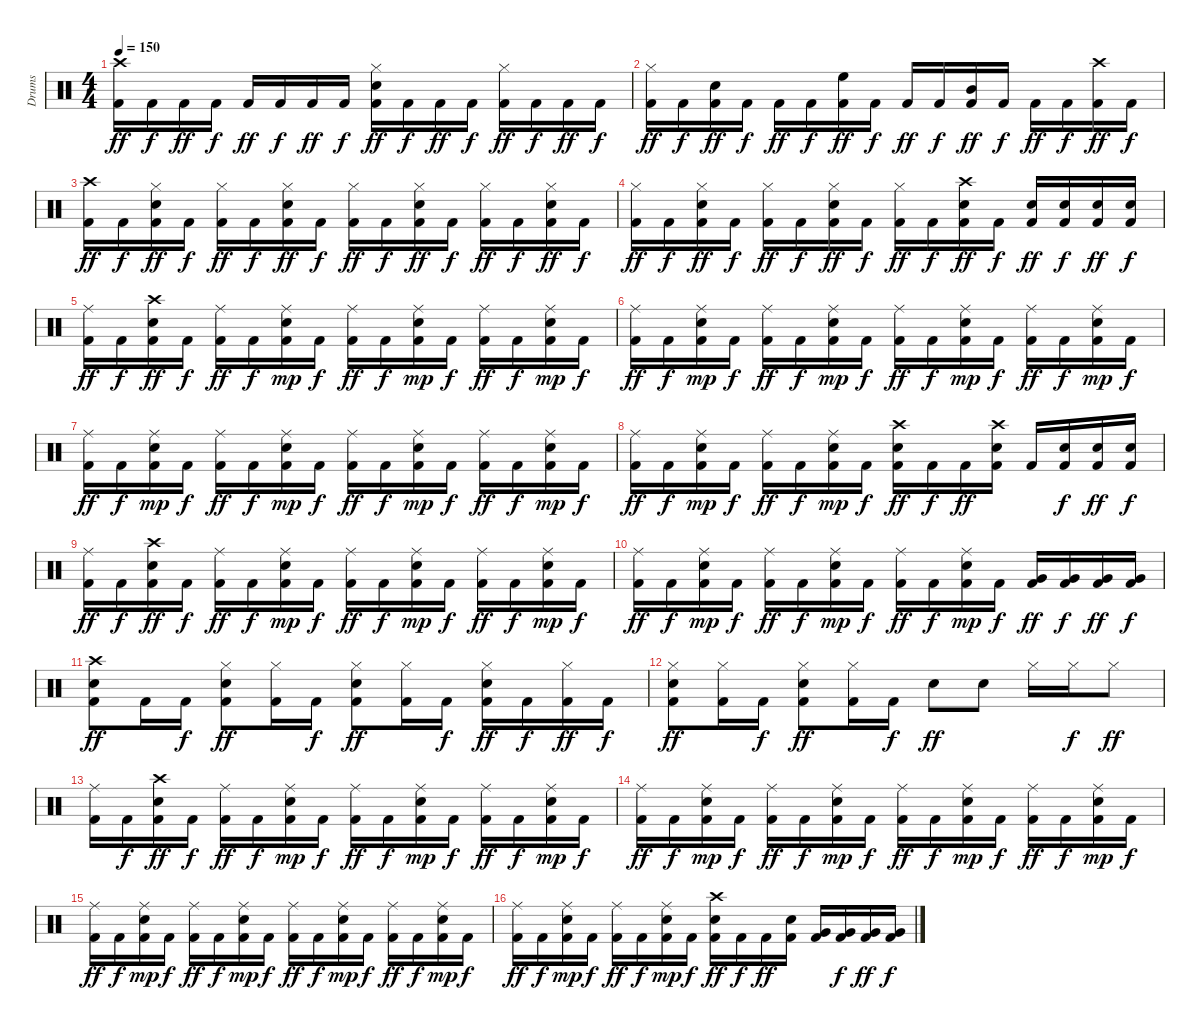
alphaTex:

\track ("Drums" "Drums") {instrument percussion}
\staff {score}
\articulation defaults
\ts (4 4)
\tempo 150
\clef neutral
\ks c
("Crash high (hit)" "Kick (hit) 2").16{dy ff} "Kick (hit) 2".16{dy f} "Kick (hit) 2".16{dy ff} "Kick (hit) 2".16{dy f} "Kick (hit) 2".16{dy ff} "Kick (hit) 2".16{dy f} "Kick (hit) 2".16{dy ff} "Kick (hit) 2".16{dy f} ("Snare (hit) 2" "Hi-Hat (closed)" "Kick (hit) 2").16{dy ff} "Kick (hit) 2".16{dy f} "Kick (hit) 2".16{dy ff} "Kick (hit) 2".16{dy f} ("Hi-Hat (closed)" "Kick (hit) 2").16{dy ff} "Kick (hit) 2".16{dy f} "Kick (hit) 2".16{dy ff} "Kick (hit) 2".16{dy f} |
("Hi-Hat (closed)" "Kick (hit) 2").16{dy ff} "Kick (hit) 2".16{dy f} ("Snare (hit) 2" "Kick (hit) 2").16{dy ff} "Kick (hit) 2".16{dy f} "Kick (hit) 2".16{dy ff} "Kick (hit) 2".16{dy f} ("High Floor Tom (hit)" "Kick (hit) 2").16{dy ff} "Kick (hit) 2".16{dy f} "Kick (hit) 2".16{dy ff} "Kick (hit) 2".16{dy f} ("Mid Tom (hit)" "Kick (hit) 2").16{dy ff} "Kick (hit) 2".16{dy f} "Kick (hit) 2".16{dy ff} "Kick (hit) 2".16{dy f} ("Crash high (hit)" "Kick (hit) 2").16{dy ff} "Kick (hit) 2".16{dy f} |
("Crash high (hit)" "Kick (hit) 2").16{dy ff} "Kick (hit) 2".16{dy f} ("Kick (hit) 2" "Hi-Hat (closed)" "Snare (hit) 2").16{dy ff} "Kick (hit) 2".16{dy f} ("Hi-Hat (closed)" "Kick (hit) 2").16{dy ff} "Kick (hit) 2".16{dy f} ("Kick (hit) 2" "Hi-Hat (closed)" "Snare (hit) 2").16{dy ff} "Kick (hit) 2".16{dy f} ("Hi-Hat (closed)" "Kick (hit) 2").16{dy ff} "Kick (hit) 2".16{dy f} ("Kick (hit) 2" "Hi-Hat (closed)" "Snare (hit) 2").16{dy ff} "Kick (hit) 2".16{dy f} ("Hi-Hat (closed)" "Kick (hit) 2").16{dy ff} "Kick (hit) 2".16{dy f} ("Kick (hit) 2" "Hi-Hat (closed)" "Snare (hit) 2").16{dy ff} "Kick (hit) 2".16{dy f} |
("Hi-Hat (closed)" "Kick (hit) 2").16{dy ff} "Kick (hit) 2".16{dy f} ("Kick (hit) 2" "Hi-Hat (closed)" "Snare (hit) 2").16{dy ff} "Kick (hit) 2".16{dy f} ("Hi-Hat (closed)" "Kick (hit) 2").16{dy ff} "Kick (hit) 2".16{dy f} ("Kick (hit) 2" "Hi-Hat (closed)" "Snare (hit) 2").16{dy ff} "Kick (hit) 2".16{dy f} ("Hi-Hat (closed)" "Kick (hit) 2").16{dy ff} "Kick (hit) 2".16{dy f} ("Kick (hit) 2" "Snare (hit) 2" "Crash high (hit)").16{dy ff} "Kick (hit) 2".16{dy f} ("Snare (hit) 2" "Kick (hit) 2").16{dy ff} ("Snare (hit) 2" "Kick (hit) 2").16{dy f} ("Snare (hit) 2" "Kick (hit) 2").16{dy ff} ("Snare (hit) 2" "Kick (hit) 2").16{dy f} |
("Ride (middle)" "Kick (hit) 2").16{dy ff} "Kick (hit) 2".16{dy f} ("Snare (hit) 2" "Crash high (hit)" "Kick (hit) 2").16{dy ff} "Kick (hit) 2".16{dy f} ("Ride (middle)" "Kick (hit) 2").16{dy ff} "Kick (hit) 2".16{dy f} ("Kick (hit) 2" "Snare (hit) 2" "Ride (middle)").16{dy mp} "Kick (hit) 2".16{dy f} ("Ride (middle)" "Kick (hit) 2").16{dy ff} "Kick (hit) 2".16{dy f} ("Kick (hit) 2" "Snare (hit) 2" "Ride (middle)").16{dy mp} "Kick (hit) 2".16{dy f} ("Ride (middle)" "Kick (hit) 2").16{dy ff} "Kick (hit) 2".16{dy f} ("Kick (hit) 2" "Snare (hit) 2" "Ride (middle)").16{dy mp} "Kick (hit) 2".16{dy f} |
("Ride (middle)" "Kick (hit) 2").16{dy ff} "Kick (hit) 2".16{dy f} ("Kick (hit) 2" "Snare (hit) 2" "Ride (middle)").16{dy mp} "Kick (hit) 2".16{dy f} ("Ride (middle)" "Kick (hit) 2").16{dy ff} "Kick (hit) 2".16{dy f} ("Kick (hit) 2" "Snare (hit) 2" "Ride (middle)").16{dy mp} "Kick (hit) 2".16{dy f} ("Ride (middle)" "Kick (hit) 2").16{dy ff} "Kick (hit) 2".16{dy f} ("Kick (hit) 2" "Snare (hit) 2" "Ride (middle)").16{dy mp} "Kick (hit) 2".16{dy f} ("Ride (middle)" "Kick (hit) 2").16{dy ff} "Kick (hit) 2".16{dy f} ("Kick (hit) 2" "Snare (hit) 2" "Ride (middle)").16{dy mp} "Kick (hit) 2".16{dy f} |
("Ride (middle)" "Kick (hit) 2").16{dy ff} "Kick (hit) 2".16{dy f} ("Kick (hit) 2" "Snare (hit) 2" "Ride (middle)").16{dy mp} "Kick (hit) 2".16{dy f} ("Ride (middle)" "Kick (hit) 2").16{dy ff} "Kick (hit) 2".16{dy f} ("Kick (hit) 2" "Snare (hit) 2" "Ride (middle)").16{dy mp} "Kick (hit) 2".16{dy f} ("Ride (middle)" "Kick (hit) 2").16{dy ff} "Kick (hit) 2".16{dy f} ("Kick (hit) 2" "Snare (hit) 2" "Ride (middle)").16{dy mp} "Kick (hit) 2".16{dy f} ("Ride (middle)" "Kick (hit) 2").16{dy ff} "Kick (hit) 2".16{dy f} ("Kick (hit) 2" "Snare (hit) 2" "Ride (middle)").16{dy mp} "Kick (hit) 2".16{dy f} |
("Ride (middle)" "Kick (hit) 2").16{dy ff} "Kick (hit) 2".16{dy f} ("Kick (hit) 2" "Snare (hit) 2" "Ride (middle)").16{dy mp} "Kick (hit) 2".16{dy f} ("Ride (middle)" "Kick (hit) 2").16{dy ff} "Kick (hit) 2".16{dy f} ("Kick (hit) 2" "Snare (hit) 2" "Ride (middle)").16{dy mp} "Kick (hit) 2".16{dy f} ("Kick (hit) 2" "Crash high (hit)" "Snare (hit) 2").16{dy ff} "Kick (hit) 2".16{dy f} "Kick (hit) 2".16{dy ff} ("Kick (hit) 2" "Crash high (hit)" "Snare (hit) 2").16 "Kick (hit) 2".16 ("Snare (hit) 2" "Kick (hit) 2").16{dy f} ("Snare (hit) 2" "Kick (hit) 2").16{dy ff} ("Snare (hit) 2" "Kick (hit) 2").16{dy f} |
("Ride (middle)" "Kick (hit) 2").16{dy ff} "Kick (hit) 2".16{dy f} ("Snare (hit) 2" "Crash high (hit)" "Kick (hit) 2").16{dy ff} "Kick (hit) 2".16{dy f} ("Ride (middle)" "Kick (hit) 2").16{dy ff} "Kick (hit) 2".16{dy f} ("Kick (hit) 2" "Snare (hit) 2" "Ride (middle)").16{dy mp} "Kick (hit) 2".16{dy f} ("Ride (middle)" "Kick (hit) 2").16{dy ff} "Kick (hit) 2".16{dy f} ("Kick (hit) 2" "Snare (hit) 2" "Ride (middle)").16{dy mp} "Kick (hit) 2".16{dy f} ("Ride (middle)" "Kick (hit) 2").16{dy ff} "Kick (hit) 2".16{dy f} ("Kick (hit) 2" "Snare (hit) 2" "Ride (middle)").16{dy mp} "Kick (hit) 2".16{dy f} |
("Ride (middle)" "Kick (hit) 2").16{dy ff} "Kick (hit) 2".16{dy f} ("Kick (hit) 2" "Snare (hit) 2" "Ride (middle)").16{dy mp} "Kick (hit) 2".16{dy f} ("Ride (middle)" "Kick (hit) 2").16{dy ff} "Kick (hit) 2".16{dy f} ("Kick (hit) 2" "Snare (hit) 2" "Ride (middle)").16{dy mp} "Kick (hit) 2".16{dy f} ("Ride (middle)" "Kick (hit) 2").16{dy ff} "Kick (hit) 2".16{dy f} ("Kick (hit) 2" "Snare (hit) 2" "Ride (middle)").16{dy mp} "Kick (hit) 2".16{dy f} ("Very Low Tom (hit)" "Kick (hit) 2").16{dy ff} ("Very Low Tom (hit)" "Kick (hit) 2").16{dy f} ("Very Low Tom (hit)" "Kick (hit) 2").16{dy ff} ("Very Low Tom (hit)" "Kick (hit) 2").16{dy f} |
("Kick (hit) 2" "Snare (hit) 2" "Crash high (hit)").8{dy ff} "Kick (hit) 2".16 "Kick (hit) 2".16{dy f} ("Kick (hit) 2" "Hi-Hat (closed)" "Snare (hit) 2").8{dy ff} ("Hi-Hat (closed)" "Kick (hit) 2").16 "Kick (hit) 2".16{dy f} ("Kick (hit) 2" "Hi-Hat (closed)" "Snare (hit) 2").8{dy ff} ("Hi-Hat (closed)" "Kick (hit) 2").16 "Kick (hit) 2".16{dy f} ("Kick (hit) 2" "Hi-Hat (closed)" "Snare (hit) 2").16{dy ff} "Kick (hit) 2".16{dy f} ("Hi-Hat (closed)" "Kick (hit) 2").16{dy ff} "Kick (hit) 2".16{dy f} |
("Kick (hit) 2" "Hi-Hat (closed)" "Snare (hit) 2").8{dy ff} ("Hi-Hat (closed)" "Kick (hit) 2").16 "Kick (hit) 2".16{dy f} ("Kick (hit) 2" "Hi-Hat (closed)" "Snare (hit) 2").8{dy ff} ("Hi-Hat (closed)" "Kick (hit) 2").16 "Kick (hit) 2".16{dy f} "Snare (hit) 2".8{dy ff} "Snare (hit) 2".8 "Hi-Hat (closed)".16 "Hi-Hat (closed)".16{dy f} "Hi-Hat (closed)".8{dy ff} |
("Ride (middle)" "Kick (hit) 2").16 "Kick (hit) 2".16{dy f} ("Snare (hit) 2" "Crash high (hit)" "Kick (hit) 2").16{dy ff} "Kick (hit) 2".16{dy f} ("Ride (middle)" "Kick (hit) 2").16{dy ff} "Kick (hit) 2".16{dy f} ("Kick (hit) 2" "Snare (hit) 2" "Ride (middle)").16{dy mp} "Kick (hit) 2".16{dy f} ("Ride (middle)" "Kick (hit) 2").16{dy ff} "Kick (hit) 2".16{dy f} ("Kick (hit) 2" "Snare (hit) 2" "Ride (middle)").16{dy mp} "Kick (hit) 2".16{dy f} ("Ride (middle)" "Kick (hit) 2").16{dy ff} "Kick (hit) 2".16{dy f} ("Kick (hit) 2" "Snare (hit) 2" "Ride (middle)").16{dy mp} "Kick (hit) 2".16{dy f} |
("Ride (middle)" "Kick (hit) 2").16{dy ff} "Kick (hit) 2".16{dy f} ("Kick (hit) 2" "Snare (hit) 2" "Ride (middle)").16{dy mp} "Kick (hit) 2".16{dy f} ("Ride (middle)" "Kick (hit) 2").16{dy ff} "Kick (hit) 2".16{dy f} ("Kick (hit) 2" "Snare (hit) 2" "Ride (middle)").16{dy mp} "Kick (hit) 2".16{dy f} ("Ride (middle)" "Kick (hit) 2").16{dy ff} "Kick (hit) 2".16{dy f} ("Kick (hit) 2" "Snare (hit) 2" "Ride (middle)").16{dy mp} "Kick (hit) 2".16{dy f} ("Ride (middle)" "Kick (hit) 2").16{dy ff} "Kick (hit) 2".16{dy f} ("Kick (hit) 2" "Snare (hit) 2" "Ride (middle)").16{dy mp} "Kick (hit) 2".16{dy f} |
("Ride (middle)" "Kick (hit) 2").16{dy ff} "Kick (hit) 2".16{dy f} ("Kick (hit) 2" "Snare (hit) 2" "Ride (middle)").16{dy mp} "Kick (hit) 2".16{dy f} ("Ride (middle)" "Kick (hit) 2").16{dy ff} "Kick (hit) 2".16{dy f} ("Kick (hit) 2" "Snare (hit) 2" "Ride (middle)").16{dy mp} "Kick (hit) 2".16{dy f} ("Ride (middle)" "Kick (hit) 2").16{dy ff} "Kick (hit) 2".16{dy f} ("Kick (hit) 2" "Snare (hit) 2" "Ride (middle)").16{dy mp} "Kick (hit) 2".16{dy f} ("Ride (middle)" "Kick (hit) 2").16{dy ff} "Kick (hit) 2".16{dy f} ("Kick (hit) 2" "Snare (hit) 2" "Ride (middle)").16{dy mp} "Kick (hit) 2".16{dy f} |
("Ride (middle)" "Kick (hit) 2").16{dy ff} "Kick (hit) 2".16{dy f} ("Kick (hit) 2" "Snare (hit) 2" "Ride (middle)").16{dy mp} "Kick (hit) 2".16{dy f} ("Ride (middle)" "Kick (hit) 2").16{dy ff} "Kick (hit) 2".16{dy f} ("Kick (hit) 2" "Snare (hit) 2" "Ride (middle)").16{dy mp} "Kick (hit) 2".16{dy f} ("Kick (hit) 2" "Crash high (hit)" "Snare (hit) 2").16{dy ff} "Kick (hit) 2".16{dy f} "Kick (hit) 2".16{dy ff} ("Snare (hit) 2" "Kick (hit) 2").16 ("Very Low Tom (hit)" "Kick (hit) 2").16 ("Very Low Tom (hit)" "Kick (hit) 2").16{dy f} ("Very Low Tom (hit)" "Kick (hit) 2").16{dy ff} ("Very Low Tom (hit)" "Kick (hit) 2").16{dy f}
